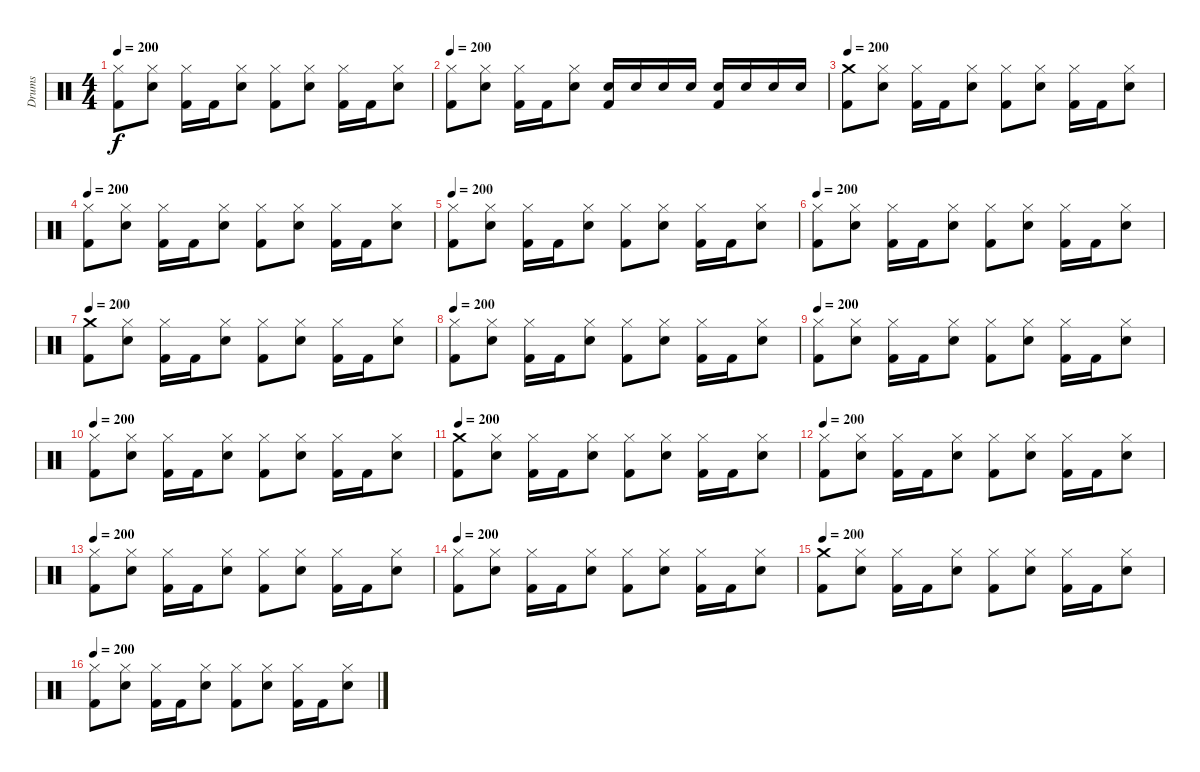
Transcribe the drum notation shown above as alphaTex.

\track ("Drums" "Drums") {instrument percussion}
\staff {score}
\articulation defaults
\ts (4 4)
\tempo 200
\clef neutral
\ks c
("Hi-Hat (closed)" "Kick (hit) 2").8{dy f} ("Hi-Hat (closed)" "Snare (hit) 2").8 ("Hi-Hat (closed)" "Kick (hit) 2").16 "Kick (hit) 2".16 ("Hi-Hat (closed)" "Snare (hit) 2").8 ("Hi-Hat (closed)" "Kick (hit) 2").8 ("Hi-Hat (closed)" "Snare (hit) 2").8 ("Hi-Hat (closed)" "Kick (hit) 2").16 "Kick (hit) 2".16 ("Hi-Hat (closed)" "Snare (hit) 2").8 |
\tempo 200
("Hi-Hat (closed)" "Kick (hit) 2").8 ("Hi-Hat (closed)" "Snare (hit) 2").8 ("Hi-Hat (closed)" "Kick (hit) 2").16 "Kick (hit) 2".16 ("Hi-Hat (closed)" "Snare (hit) 2").8 ("Snare (hit) 2" "Kick (hit) 2").16 "Snare (hit) 2".16 "Snare (hit) 2".16 "Snare (hit) 2".16 ("Snare (hit) 2" "Kick (hit) 2").16 "Snare (hit) 2".16 "Snare (hit) 2".16 "Snare (hit) 2".16 |
\tempo 200
("Crash medium (hit)" "Kick (hit) 2").8 ("Hi-Hat (closed)" "Snare (hit) 2").8 ("Hi-Hat (closed)" "Kick (hit) 2").16 "Kick (hit) 2".16 ("Hi-Hat (closed)" "Snare (hit) 2").8 ("Hi-Hat (closed)" "Kick (hit) 2").8 ("Hi-Hat (closed)" "Snare (hit) 2").8 ("Hi-Hat (closed)" "Kick (hit) 2").16 "Kick (hit) 2".16 ("Hi-Hat (closed)" "Snare (hit) 2").8 |
\tempo 200
("Hi-Hat (closed)" "Kick (hit) 2").8 ("Hi-Hat (closed)" "Snare (hit) 2").8 ("Hi-Hat (closed)" "Kick (hit) 2").16 "Kick (hit) 2".16 ("Hi-Hat (closed)" "Snare (hit) 2").8 ("Hi-Hat (closed)" "Kick (hit) 2").8 ("Hi-Hat (closed)" "Snare (hit) 2").8 ("Hi-Hat (closed)" "Kick (hit) 2").16 "Kick (hit) 2".16 ("Hi-Hat (closed)" "Snare (hit) 2").8 |
\tempo 200
("Hi-Hat (closed)" "Kick (hit) 2").8 ("Hi-Hat (closed)" "Snare (hit) 2").8 ("Hi-Hat (closed)" "Kick (hit) 2").16 "Kick (hit) 2".16 ("Hi-Hat (closed)" "Snare (hit) 2").8 ("Hi-Hat (closed)" "Kick (hit) 2").8 ("Hi-Hat (closed)" "Snare (hit) 2").8 ("Hi-Hat (closed)" "Kick (hit) 2").16 "Kick (hit) 2".16 ("Hi-Hat (closed)" "Snare (hit) 2").8 |
\tempo 200
("Hi-Hat (closed)" "Kick (hit) 2").8 ("Hi-Hat (closed)" "Snare (hit) 2").8 ("Hi-Hat (closed)" "Kick (hit) 2").16 "Kick (hit) 2".16 ("Hi-Hat (closed)" "Snare (hit) 2").8 ("Hi-Hat (closed)" "Kick (hit) 2").8 ("Hi-Hat (closed)" "Snare (hit) 2").8 ("Hi-Hat (closed)" "Kick (hit) 2").16 "Kick (hit) 2".16 ("Hi-Hat (closed)" "Snare (hit) 2").8 |
\tempo 200
("Crash medium (hit)" "Kick (hit) 2").8 ("Hi-Hat (closed)" "Snare (hit) 2").8 ("Hi-Hat (closed)" "Kick (hit) 2").16 "Kick (hit) 2".16 ("Hi-Hat (closed)" "Snare (hit) 2").8 ("Hi-Hat (closed)" "Kick (hit) 2").8 ("Hi-Hat (closed)" "Snare (hit) 2").8 ("Hi-Hat (closed)" "Kick (hit) 2").16 "Kick (hit) 2".16 ("Hi-Hat (closed)" "Snare (hit) 2").8 |
\tempo 200
("Hi-Hat (closed)" "Kick (hit) 2").8 ("Hi-Hat (closed)" "Snare (hit) 2").8 ("Hi-Hat (closed)" "Kick (hit) 2").16 "Kick (hit) 2".16 ("Hi-Hat (closed)" "Snare (hit) 2").8 ("Hi-Hat (closed)" "Kick (hit) 2").8 ("Hi-Hat (closed)" "Snare (hit) 2").8 ("Hi-Hat (closed)" "Kick (hit) 2").16 "Kick (hit) 2".16 ("Hi-Hat (closed)" "Snare (hit) 2").8 |
\tempo 200
("Hi-Hat (closed)" "Kick (hit) 2").8 ("Hi-Hat (closed)" "Snare (hit) 2").8 ("Hi-Hat (closed)" "Kick (hit) 2").16 "Kick (hit) 2".16 ("Hi-Hat (closed)" "Snare (hit) 2").8 ("Hi-Hat (closed)" "Kick (hit) 2").8 ("Hi-Hat (closed)" "Snare (hit) 2").8 ("Hi-Hat (closed)" "Kick (hit) 2").16 "Kick (hit) 2".16 ("Hi-Hat (closed)" "Snare (hit) 2").8 |
\tempo 200
("Hi-Hat (closed)" "Kick (hit) 2").8 ("Hi-Hat (closed)" "Snare (hit) 2").8 ("Hi-Hat (closed)" "Kick (hit) 2").16 "Kick (hit) 2".16 ("Hi-Hat (closed)" "Snare (hit) 2").8 ("Hi-Hat (closed)" "Kick (hit) 2").8 ("Hi-Hat (closed)" "Snare (hit) 2").8 ("Hi-Hat (closed)" "Kick (hit) 2").16 "Kick (hit) 2".16 ("Hi-Hat (closed)" "Snare (hit) 2").8 |
\tempo 200
("Crash medium (hit)" "Kick (hit) 2").8 ("Hi-Hat (closed)" "Snare (hit) 2").8 ("Hi-Hat (closed)" "Kick (hit) 2").16 "Kick (hit) 2".16 ("Hi-Hat (closed)" "Snare (hit) 2").8 ("Hi-Hat (closed)" "Kick (hit) 2").8 ("Hi-Hat (closed)" "Snare (hit) 2").8 ("Hi-Hat (closed)" "Kick (hit) 2").16 "Kick (hit) 2".16 ("Hi-Hat (closed)" "Snare (hit) 2").8 |
\tempo 200
("Hi-Hat (closed)" "Kick (hit) 2").8 ("Hi-Hat (closed)" "Snare (hit) 2").8 ("Hi-Hat (closed)" "Kick (hit) 2").16 "Kick (hit) 2".16 ("Hi-Hat (closed)" "Snare (hit) 2").8 ("Hi-Hat (closed)" "Kick (hit) 2").8 ("Hi-Hat (closed)" "Snare (hit) 2").8 ("Hi-Hat (closed)" "Kick (hit) 2").16 "Kick (hit) 2".16 ("Hi-Hat (closed)" "Snare (hit) 2").8 |
\tempo 200
("Hi-Hat (closed)" "Kick (hit) 2").8 ("Hi-Hat (closed)" "Snare (hit) 2").8 ("Hi-Hat (closed)" "Kick (hit) 2").16 "Kick (hit) 2".16 ("Hi-Hat (closed)" "Snare (hit) 2").8 ("Hi-Hat (closed)" "Kick (hit) 2").8 ("Hi-Hat (closed)" "Snare (hit) 2").8 ("Hi-Hat (closed)" "Kick (hit) 2").16 "Kick (hit) 2".16 ("Hi-Hat (closed)" "Snare (hit) 2").8 |
\tempo 200
("Hi-Hat (closed)" "Kick (hit) 2").8 ("Hi-Hat (closed)" "Snare (hit) 2").8 ("Hi-Hat (closed)" "Kick (hit) 2").16 "Kick (hit) 2".16 ("Hi-Hat (closed)" "Snare (hit) 2").8 ("Hi-Hat (closed)" "Kick (hit) 2").8 ("Hi-Hat (closed)" "Snare (hit) 2").8 ("Hi-Hat (closed)" "Kick (hit) 2").16 "Kick (hit) 2".16 ("Hi-Hat (closed)" "Snare (hit) 2").8 |
\tempo 200
("Crash medium (hit)" "Kick (hit) 2").8 ("Hi-Hat (closed)" "Snare (hit) 2").8 ("Hi-Hat (closed)" "Kick (hit) 2").16 "Kick (hit) 2".16 ("Hi-Hat (closed)" "Snare (hit) 2").8 ("Hi-Hat (closed)" "Kick (hit) 2").8 ("Hi-Hat (closed)" "Snare (hit) 2").8 ("Hi-Hat (closed)" "Kick (hit) 2").16 "Kick (hit) 2".16 ("Hi-Hat (closed)" "Snare (hit) 2").8 |
\tempo 200
("Hi-Hat (closed)" "Kick (hit) 2").8 ("Hi-Hat (closed)" "Snare (hit) 2").8 ("Hi-Hat (closed)" "Kick (hit) 2").16 "Kick (hit) 2".16 ("Hi-Hat (closed)" "Snare (hit) 2").8 ("Hi-Hat (closed)" "Kick (hit) 2").8 ("Hi-Hat (closed)" "Snare (hit) 2").8 ("Hi-Hat (closed)" "Kick (hit) 2").16 "Kick (hit) 2".16 ("Hi-Hat (closed)" "Snare (hit) 2").8
